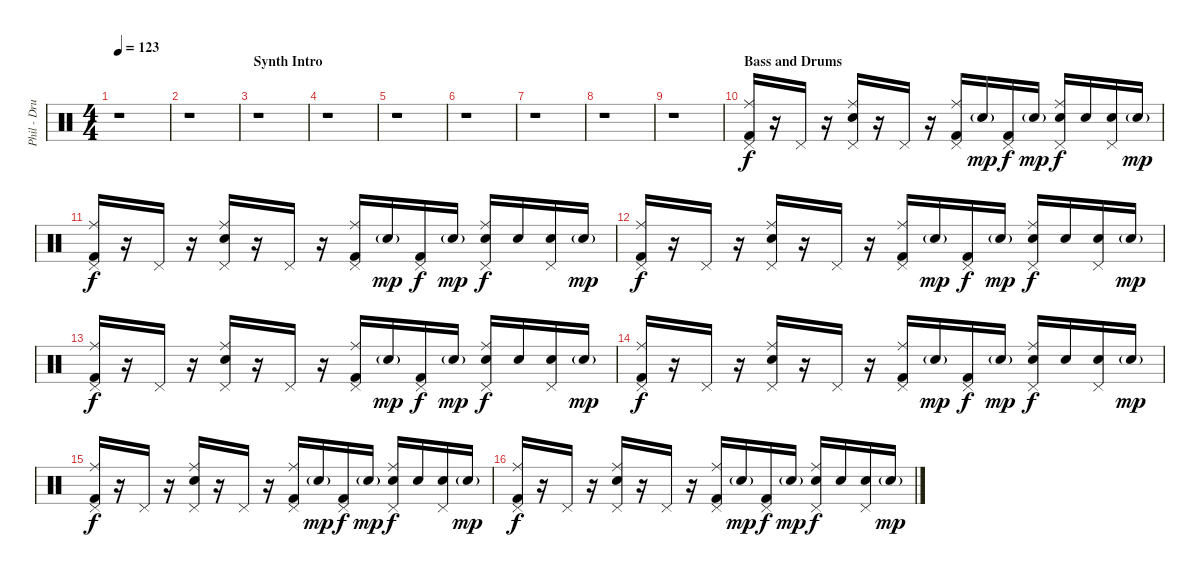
\track ("Phil - Drums" "Phil - Dru") {instrument percussion}
\staff {score}
\articulation defaults
\ts (4 4)
\tempo 123
\clef neutral
\ks c
r.1{dy f} |
r.1 |
\section ("" "Synth Intro")
r.1 |
r.1 |
r.1 |
r.1 |
r.1 |
r.1 |
r.1 |
\section ("" "Bass and Drums")
("Ride (middle)" "Kick (hit) 2" "Pedal Hi-Hat (hit)").16 r.16 "Pedal Hi-Hat (hit)".16 r.16 ("Ride (middle)" "Snare (hit) 2" "Pedal Hi-Hat (hit)").16 r.16 "Pedal Hi-Hat (hit)".16 r.16 ("Ride (middle)" "Kick (hit) 2" "Pedal Hi-Hat (hit)").16 "Snare (hit) 2"{g}.16{dy mp} ("Kick (hit) 2" "Pedal Hi-Hat (hit)").16{dy f} "Snare (hit) 2"{g}.16{dy mp} ("Ride (middle)" "Snare (hit) 2" "Pedal Hi-Hat (hit)").16{dy f} "Snare (hit) 2".16 ("Snare (hit) 2" "Pedal Hi-Hat (hit)").16 "Snare (hit) 2"{g}.16{dy mp} |
("Ride (middle)" "Kick (hit) 2" "Pedal Hi-Hat (hit)").16{dy f} r.16 "Pedal Hi-Hat (hit)".16 r.16 ("Ride (middle)" "Snare (hit) 2" "Pedal Hi-Hat (hit)").16 r.16 "Pedal Hi-Hat (hit)".16 r.16 ("Ride (middle)" "Kick (hit) 2" "Pedal Hi-Hat (hit)").16 "Snare (hit) 2"{g}.16{dy mp} ("Kick (hit) 2" "Pedal Hi-Hat (hit)").16{dy f} "Snare (hit) 2"{g}.16{dy mp} ("Ride (middle)" "Snare (hit) 2" "Pedal Hi-Hat (hit)").16{dy f} "Snare (hit) 2".16 ("Snare (hit) 2" "Pedal Hi-Hat (hit)").16 "Snare (hit) 2"{g}.16{dy mp} |
("Ride (middle)" "Kick (hit) 2" "Pedal Hi-Hat (hit)").16{dy f} r.16 "Pedal Hi-Hat (hit)".16 r.16 ("Ride (middle)" "Snare (hit) 2" "Pedal Hi-Hat (hit)").16 r.16 "Pedal Hi-Hat (hit)".16 r.16 ("Ride (middle)" "Kick (hit) 2" "Pedal Hi-Hat (hit)").16 "Snare (hit) 2"{g}.16{dy mp} ("Kick (hit) 2" "Pedal Hi-Hat (hit)").16{dy f} "Snare (hit) 2"{g}.16{dy mp} ("Ride (middle)" "Snare (hit) 2" "Pedal Hi-Hat (hit)").16{dy f} "Snare (hit) 2".16 ("Snare (hit) 2" "Pedal Hi-Hat (hit)").16 "Snare (hit) 2"{g}.16{dy mp} |
("Ride (middle)" "Kick (hit) 2" "Pedal Hi-Hat (hit)").16{dy f} r.16 "Pedal Hi-Hat (hit)".16 r.16 ("Ride (middle)" "Snare (hit) 2" "Pedal Hi-Hat (hit)").16 r.16 "Pedal Hi-Hat (hit)".16 r.16 ("Ride (middle)" "Kick (hit) 2" "Pedal Hi-Hat (hit)").16 "Snare (hit) 2"{g}.16{dy mp} ("Kick (hit) 2" "Pedal Hi-Hat (hit)").16{dy f} "Snare (hit) 2"{g}.16{dy mp} ("Ride (middle)" "Snare (hit) 2" "Pedal Hi-Hat (hit)").16{dy f} "Snare (hit) 2".16 ("Snare (hit) 2" "Pedal Hi-Hat (hit)").16 "Snare (hit) 2"{g}.16{dy mp} |
("Ride (middle)" "Kick (hit) 2" "Pedal Hi-Hat (hit)").16{dy f} r.16 "Pedal Hi-Hat (hit)".16 r.16 ("Ride (middle)" "Snare (hit) 2" "Pedal Hi-Hat (hit)").16 r.16 "Pedal Hi-Hat (hit)".16 r.16 ("Ride (middle)" "Kick (hit) 2" "Pedal Hi-Hat (hit)").16 "Snare (hit) 2"{g}.16{dy mp} ("Kick (hit) 2" "Pedal Hi-Hat (hit)").16{dy f} "Snare (hit) 2"{g}.16{dy mp} ("Ride (middle)" "Snare (hit) 2" "Pedal Hi-Hat (hit)").16{dy f} "Snare (hit) 2".16 ("Snare (hit) 2" "Pedal Hi-Hat (hit)").16 "Snare (hit) 2"{g}.16{dy mp} |
("Ride (middle)" "Kick (hit) 2" "Pedal Hi-Hat (hit)").16{dy f} r.16 "Pedal Hi-Hat (hit)".16 r.16 ("Ride (middle)" "Snare (hit) 2" "Pedal Hi-Hat (hit)").16 r.16 "Pedal Hi-Hat (hit)".16 r.16 ("Ride (middle)" "Kick (hit) 2" "Pedal Hi-Hat (hit)").16 "Snare (hit) 2"{g}.16{dy mp} ("Kick (hit) 2" "Pedal Hi-Hat (hit)").16{dy f} "Snare (hit) 2"{g}.16{dy mp} ("Ride (middle)" "Snare (hit) 2" "Pedal Hi-Hat (hit)").16{dy f} "Snare (hit) 2".16 ("Snare (hit) 2" "Pedal Hi-Hat (hit)").16 "Snare (hit) 2"{g}.16{dy mp} |
("Ride (middle)" "Kick (hit) 2" "Pedal Hi-Hat (hit)").16{dy f} r.16 "Pedal Hi-Hat (hit)".16 r.16 ("Ride (middle)" "Snare (hit) 2" "Pedal Hi-Hat (hit)").16 r.16 "Pedal Hi-Hat (hit)".16 r.16 ("Ride (middle)" "Kick (hit) 2" "Pedal Hi-Hat (hit)").16 "Snare (hit) 2"{g}.16{dy mp} ("Kick (hit) 2" "Pedal Hi-Hat (hit)").16{dy f} "Snare (hit) 2"{g}.16{dy mp} ("Ride (middle)" "Snare (hit) 2" "Pedal Hi-Hat (hit)").16{dy f} "Snare (hit) 2".16 ("Snare (hit) 2" "Pedal Hi-Hat (hit)").16 "Snare (hit) 2"{g}.16{dy mp}
